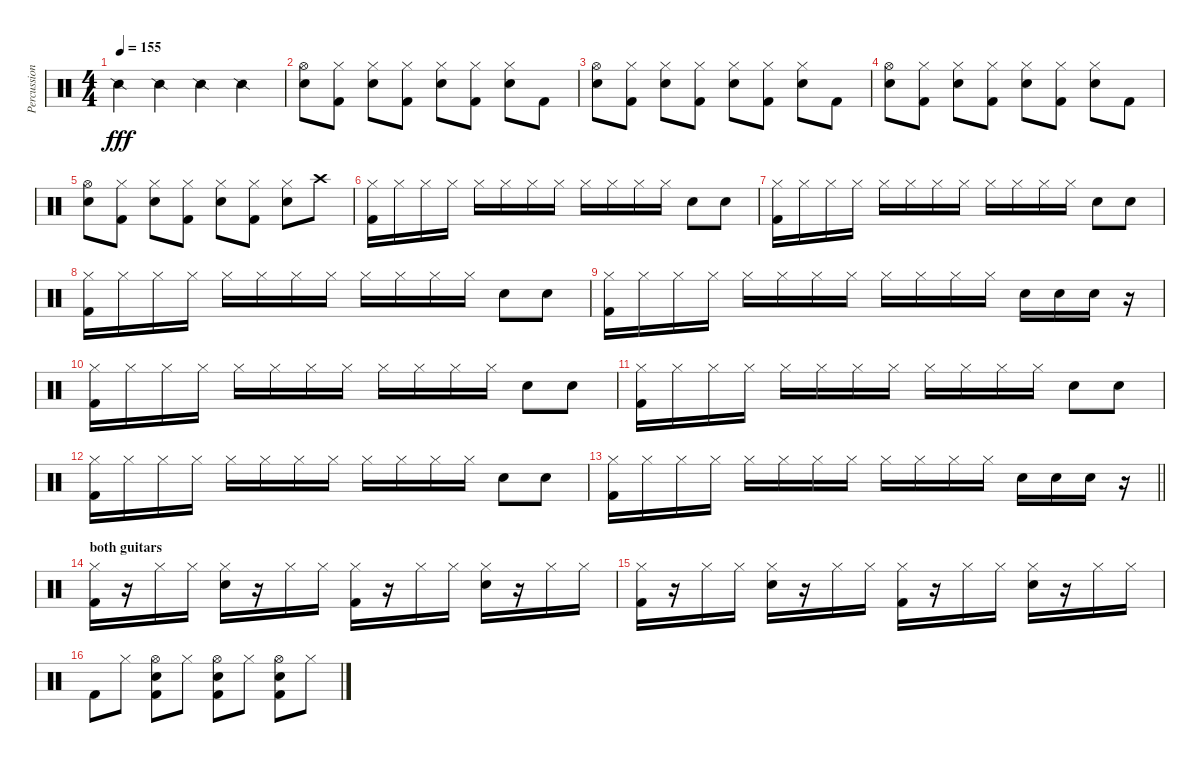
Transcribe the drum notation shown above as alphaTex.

\track ("Percussion" "Percussion") {instrument percussion}
\staff {score}
\articulation defaults
\ts (4 4)
\tempo 155
\clef neutral
\ks c "Snare (side stick) 2".4{dy fff} "Snare (side stick) 2".4 "Snare (side stick) 2".4 "Snare (side stick) 2".4
|
("Electric Snare (hit)" "Hi-Hat (open)").8 ("Kick (hit) 2" "Hi-Hat (closed)").8 ("Electric Snare (hit)" "Hi-Hat (closed)").8 ("Kick (hit) 2" "Hi-Hat (closed)").8 ("Electric Snare (hit)" "Hi-Hat (closed)").8 ("Kick (hit) 2" "Hi-Hat (closed)").8 ("Electric Snare (hit)" "Hi-Hat (closed)").8 "Kick (hit) 2".8 |
("Electric Snare (hit)" "Hi-Hat (open)").8 ("Kick (hit) 2" "Hi-Hat (closed)").8 ("Electric Snare (hit)" "Hi-Hat (closed)").8 ("Kick (hit) 2" "Hi-Hat (closed)").8 ("Electric Snare (hit)" "Hi-Hat (closed)").8 ("Kick (hit) 2" "Hi-Hat (closed)").8 ("Electric Snare (hit)" "Hi-Hat (closed)").8 "Kick (hit) 2".8 |
("Electric Snare (hit)" "Hi-Hat (open)").8 ("Kick (hit) 2" "Hi-Hat (closed)").8 ("Electric Snare (hit)" "Hi-Hat (closed)").8 ("Kick (hit) 2" "Hi-Hat (closed)").8 ("Electric Snare (hit)" "Hi-Hat (closed)").8 ("Kick (hit) 2" "Hi-Hat (closed)").8 ("Electric Snare (hit)" "Hi-Hat (closed)").8 "Kick (hit) 2".8 |
("Electric Snare (hit)" "Hi-Hat (open)").8 ("Kick (hit) 2" "Hi-Hat (closed)").8 ("Electric Snare (hit)" "Hi-Hat (closed)").8 ("Kick (hit) 2" "Hi-Hat (closed)").8 ("Electric Snare (hit)" "Hi-Hat (closed)").8 ("Kick (hit) 2" "Hi-Hat (closed)").8 ("Electric Snare (hit)" "Hi-Hat (closed)").8 "Crash high (hit)".8 |
("Kick (hit) 2" "Hi-Hat (closed)").16 "Hi-Hat (closed)".16 "Hi-Hat (closed)".16 "Hi-Hat (closed)".16 "Hi-Hat (closed)".16 "Hi-Hat (closed)".16 "Hi-Hat (closed)".16 "Hi-Hat (closed)".16 "Hi-Hat (closed)".16 "Hi-Hat (closed)".16 "Hi-Hat (closed)".16 "Hi-Hat (closed)".16 "Electric Snare (hit)".8 "Electric Snare (hit)".8 |
("Kick (hit) 2" "Hi-Hat (closed)").16 "Hi-Hat (closed)".16 "Hi-Hat (closed)".16 "Hi-Hat (closed)".16 "Hi-Hat (closed)".16 "Hi-Hat (closed)".16 "Hi-Hat (closed)".16 "Hi-Hat (closed)".16 "Hi-Hat (closed)".16 "Hi-Hat (closed)".16 "Hi-Hat (closed)".16 "Hi-Hat (closed)".16 "Electric Snare (hit)".8 "Electric Snare (hit)".8 |
("Kick (hit) 2" "Hi-Hat (closed)").16 "Hi-Hat (closed)".16 "Hi-Hat (closed)".16 "Hi-Hat (closed)".16 "Hi-Hat (closed)".16 "Hi-Hat (closed)".16 "Hi-Hat (closed)".16 "Hi-Hat (closed)".16 "Hi-Hat (closed)".16 "Hi-Hat (closed)".16 "Hi-Hat (closed)".16 "Hi-Hat (closed)".16 "Electric Snare (hit)".8 "Electric Snare (hit)".8 |
("Kick (hit) 2" "Hi-Hat (closed)").16 "Hi-Hat (closed)".16 "Hi-Hat (closed)".16 "Hi-Hat (closed)".16 "Hi-Hat (closed)".16 "Hi-Hat (closed)".16 "Hi-Hat (closed)".16 "Hi-Hat (closed)".16 "Hi-Hat (closed)".16 "Hi-Hat (closed)".16 "Hi-Hat (closed)".16 "Hi-Hat (closed)".16 "Electric Snare (hit)".16 "Electric Snare (hit)".16 "Electric Snare (hit)".16 r.16 |
("Kick (hit) 2" "Hi-Hat (closed)").16 "Hi-Hat (closed)".16 "Hi-Hat (closed)".16 "Hi-Hat (closed)".16 "Hi-Hat (closed)".16 "Hi-Hat (closed)".16 "Hi-Hat (closed)".16 "Hi-Hat (closed)".16 "Hi-Hat (closed)".16 "Hi-Hat (closed)".16 "Hi-Hat (closed)".16 "Hi-Hat (closed)".16 "Electric Snare (hit)".8 "Electric Snare (hit)".8 |
("Kick (hit) 2" "Hi-Hat (closed)").16 "Hi-Hat (closed)".16 "Hi-Hat (closed)".16 "Hi-Hat (closed)".16 "Hi-Hat (closed)".16 "Hi-Hat (closed)".16 "Hi-Hat (closed)".16 "Hi-Hat (closed)".16 "Hi-Hat (closed)".16 "Hi-Hat (closed)".16 "Hi-Hat (closed)".16 "Hi-Hat (closed)".16 "Electric Snare (hit)".8 "Electric Snare (hit)".8 |
("Kick (hit) 2" "Hi-Hat (closed)").16 "Hi-Hat (closed)".16 "Hi-Hat (closed)".16 "Hi-Hat (closed)".16 "Hi-Hat (closed)".16 "Hi-Hat (closed)".16 "Hi-Hat (closed)".16 "Hi-Hat (closed)".16 "Hi-Hat (closed)".16 "Hi-Hat (closed)".16 "Hi-Hat (closed)".16 "Hi-Hat (closed)".16 "Electric Snare (hit)".8 "Electric Snare (hit)".8 |
\barLineRight lightlight
("Kick (hit) 2" "Hi-Hat (closed)").16 "Hi-Hat (closed)".16 "Hi-Hat (closed)".16 "Hi-Hat (closed)".16 "Hi-Hat (closed)".16 "Hi-Hat (closed)".16 "Hi-Hat (closed)".16 "Hi-Hat (closed)".16 "Hi-Hat (closed)".16 "Hi-Hat (closed)".16 "Hi-Hat (closed)".16 "Hi-Hat (closed)".16 "Electric Snare (hit)".16 "Electric Snare (hit)".16 "Electric Snare (hit)".16 r.16 |
\section ("" "both guitars")
("Kick (hit) 2" "Hi-Hat (closed)").16 r.16 "Hi-Hat (closed)".16 "Hi-Hat (closed)".16 ("Electric Snare (hit)" "Hi-Hat (closed)").16 r.16 "Hi-Hat (closed)".16 "Hi-Hat (closed)".16 ("Kick (hit) 2" "Hi-Hat (closed)").16 r.16 "Hi-Hat (closed)".16 "Hi-Hat (closed)".16 ("Electric Snare (hit)" "Hi-Hat (closed)").16 r.16 "Hi-Hat (closed)".16 "Hi-Hat (closed)".16 |
("Kick (hit) 2" "Hi-Hat (closed)").16 r.16 "Hi-Hat (closed)".16 "Hi-Hat (closed)".16 ("Electric Snare (hit)" "Hi-Hat (closed)").16 r.16 "Hi-Hat (closed)".16 "Hi-Hat (closed)".16 ("Kick (hit) 2" "Hi-Hat (closed)").16 r.16 "Hi-Hat (closed)".16 "Hi-Hat (closed)".16 ("Electric Snare (hit)" "Hi-Hat (closed)").16 r.16 "Hi-Hat (closed)".16 "Hi-Hat (closed)".16 |
"Kick (hit) 2".8 "Hi-Hat (closed)".8 ("Electric Snare (hit)" "Kick (hit) 2" "Hi-Hat (open)").8 "Hi-Hat (closed)".8 ("Electric Snare (hit)" "Kick (hit) 2" "Hi-Hat (open)").8 "Hi-Hat (closed)".8 ("Electric Snare (hit)" "Kick (hit) 2" "Hi-Hat (open)").8 "Hi-Hat (closed)".8
